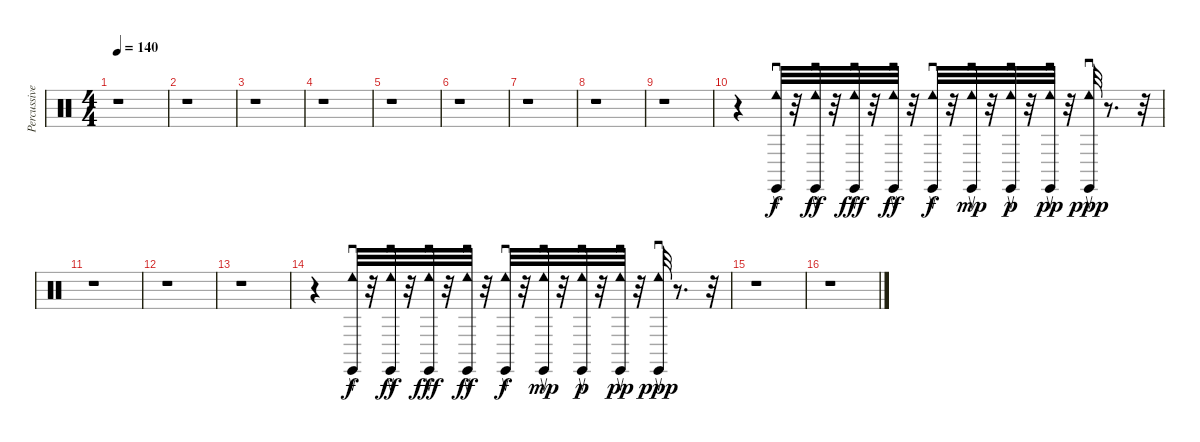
\track ("Percussive Organ" "Percussive") {instrument percussion}
\staff {score}
\articulation defaults
\ts (4 4)
\tempo 140
\clef neutral
\ks c
r.1{dy ppp} |
r.1 |
r.1 |
r.1 |
r.1 |
r.1 |
r.1 |
r.1 |
r.1 |
r.4 ("Cabasa (return)" "Tambourine (roll)").32{dy f} r.32 ("Tambourine (roll)" "Cabasa (return)").32{dy ff} r.32 ("Tambourine (roll)" "Cabasa (return)").32{dy fff} r.32 ("Tambourine (roll)" "Cabasa (return)").32{dy ff} r.32 ("Tambourine (roll)" "Cabasa (return)").32{dy f} r.32 ("Tambourine (roll)" "Cabasa (return)").32{dy mp} r.32 ("Tambourine (roll)" "Cabasa (return)").32{dy p} r.32 ("Tambourine (roll)" "Cabasa (return)").32{dy pp} r.32 ("Cabasa (return)" "Tambourine (roll)").32{dy ppp} r.8{d} r.32 |
r.1 |
r.1 |
r.1 |
r.4 ("Cabasa (return)" "Tambourine (roll)").32{dy f} r.32 ("Tambourine (roll)" "Cabasa (return)").32{dy ff} r.32 ("Tambourine (roll)" "Cabasa (return)").32{dy fff} r.32 ("Tambourine (roll)" "Cabasa (return)").32{dy ff} r.32 ("Tambourine (roll)" "Cabasa (return)").32{dy f} r.32 ("Tambourine (roll)" "Cabasa (return)").32{dy mp} r.32 ("Tambourine (roll)" "Cabasa (return)").32{dy p} r.32 ("Tambourine (roll)" "Cabasa (return)").32{dy pp} r.32 ("Cabasa (return)" "Tambourine (roll)").32{dy ppp} r.8{d} r.32 |
r.1 |
r.1
